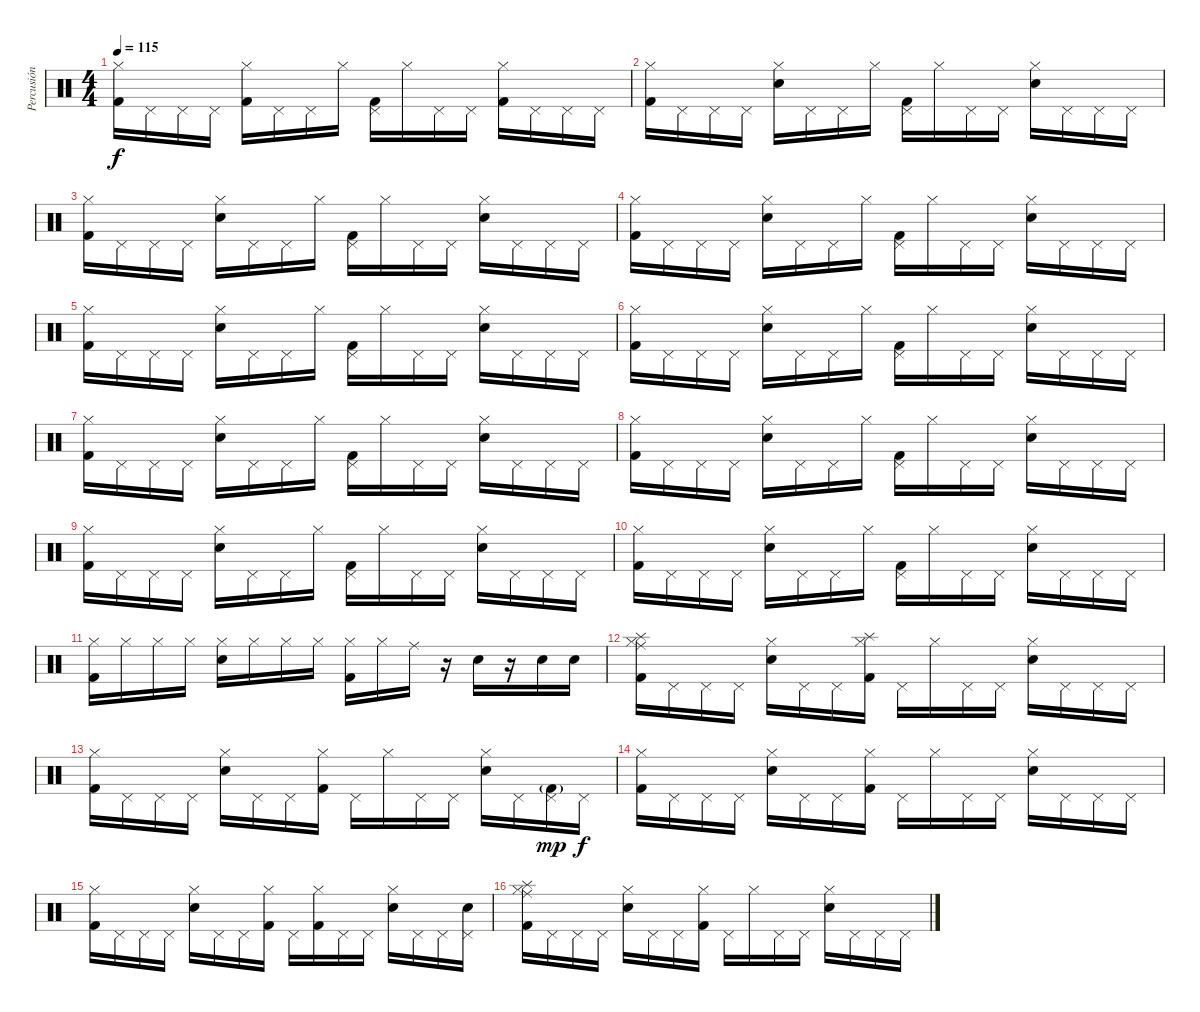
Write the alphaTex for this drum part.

\track ("Percusión" "Percusión") {instrument percussion}
\staff {score}
\articulation defaults
\ts (4 4)
\tempo 115
\clef neutral
\ks c
("Hi-Hat (closed)" "Kick (hit) 2").16{dy f} "Pedal Hi-Hat (hit)".16 "Pedal Hi-Hat (hit)".16 "Pedal Hi-Hat (hit)".16 ("Hi-Hat (closed)" "Kick (hit) 2").16 "Pedal Hi-Hat (hit)".16 "Pedal Hi-Hat (hit)".16 "Hi-Hat (closed)".16 ("Pedal Hi-Hat (hit)" "Kick (hit) 2").16 "Hi-Hat (closed)".16 "Pedal Hi-Hat (hit)".16 "Pedal Hi-Hat (hit)".16 ("Hi-Hat (closed)" "Kick (hit) 2").16 "Pedal Hi-Hat (hit)".16 "Pedal Hi-Hat (hit)".16 "Pedal Hi-Hat (hit)".16 |
("Hi-Hat (closed)" "Kick (hit) 2").16 "Pedal Hi-Hat (hit)".16 "Pedal Hi-Hat (hit)".16 "Pedal Hi-Hat (hit)".16 ("Hi-Hat (closed)" "Snare (hit) 2").16 "Pedal Hi-Hat (hit)".16 "Pedal Hi-Hat (hit)".16 "Hi-Hat (closed)".16 ("Pedal Hi-Hat (hit)" "Kick (hit) 2").16 "Hi-Hat (closed)".16 "Pedal Hi-Hat (hit)".16 "Pedal Hi-Hat (hit)".16 ("Hi-Hat (closed)" "Snare (hit) 2").16 "Pedal Hi-Hat (hit)".16 "Pedal Hi-Hat (hit)".16 "Pedal Hi-Hat (hit)".16 |
("Hi-Hat (closed)" "Kick (hit) 2").16 "Pedal Hi-Hat (hit)".16 "Pedal Hi-Hat (hit)".16 "Pedal Hi-Hat (hit)".16 ("Hi-Hat (closed)" "Snare (hit) 2").16 "Pedal Hi-Hat (hit)".16 "Pedal Hi-Hat (hit)".16 "Hi-Hat (closed)".16 ("Pedal Hi-Hat (hit)" "Kick (hit) 2").16 "Hi-Hat (closed)".16 "Pedal Hi-Hat (hit)".16 "Pedal Hi-Hat (hit)".16 ("Hi-Hat (closed)" "Snare (hit) 2").16 "Pedal Hi-Hat (hit)".16 "Pedal Hi-Hat (hit)".16 "Pedal Hi-Hat (hit)".16 |
("Hi-Hat (closed)" "Kick (hit) 2").16 "Pedal Hi-Hat (hit)".16 "Pedal Hi-Hat (hit)".16 "Pedal Hi-Hat (hit)".16 ("Hi-Hat (closed)" "Snare (hit) 2").16 "Pedal Hi-Hat (hit)".16 "Pedal Hi-Hat (hit)".16 "Hi-Hat (closed)".16 ("Pedal Hi-Hat (hit)" "Kick (hit) 2").16 "Hi-Hat (closed)".16 "Pedal Hi-Hat (hit)".16 "Pedal Hi-Hat (hit)".16 ("Hi-Hat (closed)" "Snare (hit) 2").16 "Pedal Hi-Hat (hit)".16 "Pedal Hi-Hat (hit)".16 "Pedal Hi-Hat (hit)".16 |
("Hi-Hat (closed)" "Kick (hit) 2").16 "Pedal Hi-Hat (hit)".16 "Pedal Hi-Hat (hit)".16 "Pedal Hi-Hat (hit)".16 ("Hi-Hat (closed)" "Snare (hit) 2").16 "Pedal Hi-Hat (hit)".16 "Pedal Hi-Hat (hit)".16 "Hi-Hat (closed)".16 ("Pedal Hi-Hat (hit)" "Kick (hit) 2").16 "Hi-Hat (closed)".16 "Pedal Hi-Hat (hit)".16 "Pedal Hi-Hat (hit)".16 ("Hi-Hat (closed)" "Snare (hit) 2").16 "Pedal Hi-Hat (hit)".16 "Pedal Hi-Hat (hit)".16 "Pedal Hi-Hat (hit)".16 |
("Hi-Hat (closed)" "Kick (hit) 2").16 "Pedal Hi-Hat (hit)".16 "Pedal Hi-Hat (hit)".16 "Pedal Hi-Hat (hit)".16 ("Hi-Hat (closed)" "Snare (hit) 2").16 "Pedal Hi-Hat (hit)".16 "Pedal Hi-Hat (hit)".16 "Hi-Hat (closed)".16 ("Pedal Hi-Hat (hit)" "Kick (hit) 2").16 "Hi-Hat (closed)".16 "Pedal Hi-Hat (hit)".16 "Pedal Hi-Hat (hit)".16 ("Hi-Hat (closed)" "Snare (hit) 2").16 "Pedal Hi-Hat (hit)".16 "Pedal Hi-Hat (hit)".16 "Pedal Hi-Hat (hit)".16 |
("Hi-Hat (closed)" "Kick (hit) 2").16 "Pedal Hi-Hat (hit)".16 "Pedal Hi-Hat (hit)".16 "Pedal Hi-Hat (hit)".16 ("Hi-Hat (closed)" "Snare (hit) 2").16 "Pedal Hi-Hat (hit)".16 "Pedal Hi-Hat (hit)".16 "Hi-Hat (closed)".16 ("Pedal Hi-Hat (hit)" "Kick (hit) 2").16 "Hi-Hat (closed)".16 "Pedal Hi-Hat (hit)".16 "Pedal Hi-Hat (hit)".16 ("Hi-Hat (closed)" "Snare (hit) 2").16 "Pedal Hi-Hat (hit)".16 "Pedal Hi-Hat (hit)".16 "Pedal Hi-Hat (hit)".16 |
("Hi-Hat (closed)" "Kick (hit) 2").16 "Pedal Hi-Hat (hit)".16 "Pedal Hi-Hat (hit)".16 "Pedal Hi-Hat (hit)".16 ("Hi-Hat (closed)" "Snare (hit) 2").16 "Pedal Hi-Hat (hit)".16 "Pedal Hi-Hat (hit)".16 "Hi-Hat (closed)".16 ("Pedal Hi-Hat (hit)" "Kick (hit) 2").16 "Hi-Hat (closed)".16 "Pedal Hi-Hat (hit)".16 "Pedal Hi-Hat (hit)".16 ("Hi-Hat (closed)" "Snare (hit) 2").16 "Pedal Hi-Hat (hit)".16 "Pedal Hi-Hat (hit)".16 "Pedal Hi-Hat (hit)".16 |
("Hi-Hat (closed)" "Kick (hit) 2").16 "Pedal Hi-Hat (hit)".16 "Pedal Hi-Hat (hit)".16 "Pedal Hi-Hat (hit)".16 ("Hi-Hat (closed)" "Snare (hit) 2").16 "Pedal Hi-Hat (hit)".16 "Pedal Hi-Hat (hit)".16 "Hi-Hat (closed)".16 ("Pedal Hi-Hat (hit)" "Kick (hit) 2").16 "Hi-Hat (closed)".16 "Pedal Hi-Hat (hit)".16 "Pedal Hi-Hat (hit)".16 ("Hi-Hat (closed)" "Snare (hit) 2").16 "Pedal Hi-Hat (hit)".16 "Pedal Hi-Hat (hit)".16 "Pedal Hi-Hat (hit)".16 |
("Hi-Hat (closed)" "Kick (hit) 2").16 "Pedal Hi-Hat (hit)".16 "Pedal Hi-Hat (hit)".16 "Pedal Hi-Hat (hit)".16 ("Hi-Hat (closed)" "Snare (hit) 2").16 "Pedal Hi-Hat (hit)".16 "Pedal Hi-Hat (hit)".16 "Hi-Hat (closed)".16 ("Pedal Hi-Hat (hit)" "Kick (hit) 2").16 "Hi-Hat (closed)".16 "Pedal Hi-Hat (hit)".16 "Pedal Hi-Hat (hit)".16 ("Hi-Hat (closed)" "Snare (hit) 2").16 "Pedal Hi-Hat (hit)".16 "Pedal Hi-Hat (hit)".16 "Pedal Hi-Hat (hit)".16 |
("Hi-Hat (closed)" "Kick (hit) 2").16 "Hi-Hat (closed)".16 "Hi-Hat (closed)".16 "Hi-Hat (closed)".16 ("Hi-Hat (closed)" "Snare (hit) 2").16 "Hi-Hat (closed)".16 "Hi-Hat (closed)".16 "Hi-Hat (closed)".16 ("Hi-Hat (closed)" "Kick (hit) 2").16 "Hi-Hat (closed)".16 "Ride (middle)".16 r.16 "Snare (hit) 2".16 r.16 "Snare (hit) 2".16 "Snare (hit) 2".16 |
("Hi-Hat (closed)" "Kick (hit) 2" "Ride (middle)" "Splash (hit)").16 "Pedal Hi-Hat (hit)".16 "Pedal Hi-Hat (hit)".16 "Pedal Hi-Hat (hit)".16 ("Hi-Hat (closed)" "Snare (hit) 2").16 "Pedal Hi-Hat (hit)".16 "Pedal Hi-Hat (hit)".16 ("Hi-Hat (closed)" "Kick (hit) 2" "Splash (hit)").16 "Pedal Hi-Hat (hit)".16 "Hi-Hat (closed)".16 "Pedal Hi-Hat (hit)".16 "Pedal Hi-Hat (hit)".16 ("Hi-Hat (closed)" "Snare (hit) 2").16 "Pedal Hi-Hat (hit)".16 "Pedal Hi-Hat (hit)".16 "Pedal Hi-Hat (hit)".16 |
("Hi-Hat (closed)" "Kick (hit) 2").16 "Pedal Hi-Hat (hit)".16 "Pedal Hi-Hat (hit)".16 "Pedal Hi-Hat (hit)".16 ("Hi-Hat (closed)" "Snare (hit) 2").16 "Pedal Hi-Hat (hit)".16 "Pedal Hi-Hat (hit)".16 ("Hi-Hat (closed)" "Kick (hit) 2").16 "Pedal Hi-Hat (hit)".16 "Hi-Hat (closed)".16 "Pedal Hi-Hat (hit)".16 "Pedal Hi-Hat (hit)".16 ("Hi-Hat (closed)" "Snare (hit) 2").16 "Pedal Hi-Hat (hit)".16 ("Pedal Hi-Hat (hit)" "Kick (hit) 2"{g}).16{dy mp} "Pedal Hi-Hat (hit)".16{dy f} |
("Hi-Hat (closed)" "Kick (hit) 2").16 "Pedal Hi-Hat (hit)".16 "Pedal Hi-Hat (hit)".16 "Pedal Hi-Hat (hit)".16 ("Hi-Hat (closed)" "Snare (hit) 2").16 "Pedal Hi-Hat (hit)".16 "Pedal Hi-Hat (hit)".16 ("Hi-Hat (closed)" "Kick (hit) 2").16 "Pedal Hi-Hat (hit)".16 "Hi-Hat (closed)".16 "Pedal Hi-Hat (hit)".16 "Pedal Hi-Hat (hit)".16 ("Hi-Hat (closed)" "Snare (hit) 2").16 "Pedal Hi-Hat (hit)".16 "Pedal Hi-Hat (hit)".16 "Pedal Hi-Hat (hit)".16 |
("Hi-Hat (closed)" "Kick (hit) 2").16 "Pedal Hi-Hat (hit)".16 "Pedal Hi-Hat (hit)".16 "Pedal Hi-Hat (hit)".16 ("Hi-Hat (closed)" "Snare (hit) 2").16 "Pedal Hi-Hat (hit)".16 "Pedal Hi-Hat (hit)".16 ("Hi-Hat (closed)" "Kick (hit) 2").16 "Pedal Hi-Hat (hit)".16 ("Hi-Hat (closed)" "Kick (hit) 2").16 "Pedal Hi-Hat (hit)".16 "Pedal Hi-Hat (hit)".16 ("Hi-Hat (closed)" "Snare (hit) 2").16 "Pedal Hi-Hat (hit)".16 "Pedal Hi-Hat (hit)".16 ("Pedal Hi-Hat (hit)" "Snare (hit) 2").16 |
("Hi-Hat (closed)" "Kick (hit) 2" "Ride (middle)" "Splash (hit)").16 "Pedal Hi-Hat (hit)".16 "Pedal Hi-Hat (hit)".16 "Pedal Hi-Hat (hit)".16 ("Hi-Hat (closed)" "Snare (hit) 2").16 "Pedal Hi-Hat (hit)".16 "Pedal Hi-Hat (hit)".16 ("Hi-Hat (closed)" "Kick (hit) 2").16 "Pedal Hi-Hat (hit)".16 "Hi-Hat (closed)".16 "Pedal Hi-Hat (hit)".16 "Pedal Hi-Hat (hit)".16 ("Hi-Hat (closed)" "Snare (hit) 2").16 "Pedal Hi-Hat (hit)".16 "Pedal Hi-Hat (hit)".16 "Pedal Hi-Hat (hit)".16
